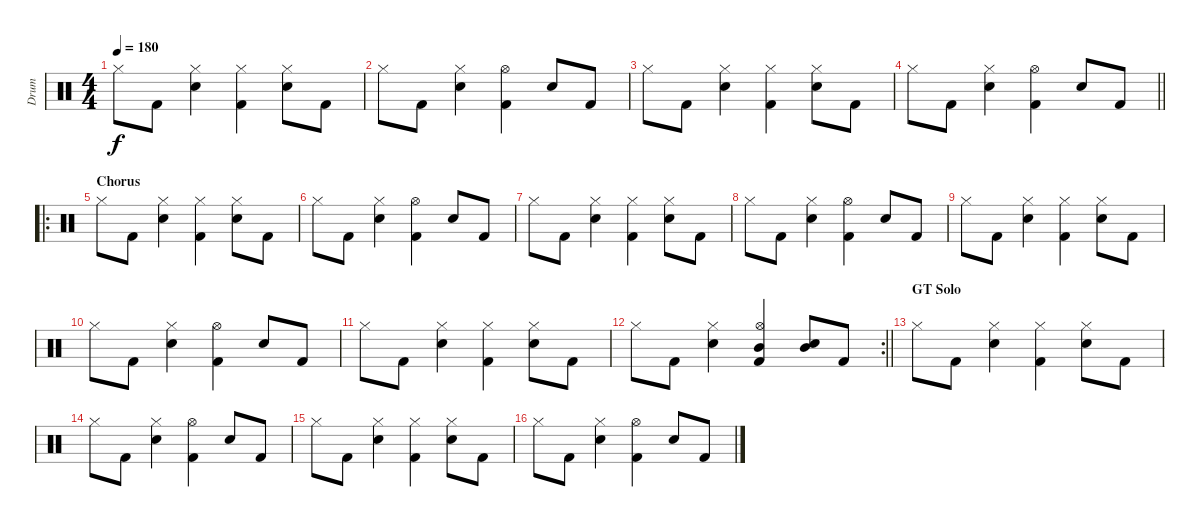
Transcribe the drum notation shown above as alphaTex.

\track ("Drum" "Drum") {instrument percussion}
\staff {score}
\articulation defaults
\ts (4 4)
\tempo 180
\clef neutral
\ks c "Hi-Hat (closed)".8{dy f} "Kick (hit) 2".8
("Hi-Hat (closed)" "Snare (hit) 2").4 ("Hi-Hat (closed)" "Kick (hit) 2").4 ("Hi-Hat (closed)" "Snare (hit) 2").8 "Kick (hit) 2".8 |
"Hi-Hat (closed)".8 "Kick (hit) 2".8 ("Hi-Hat (closed)" "Snare (hit) 2").4 ("Hi-Hat (open)" "Kick (hit) 2").4 "Snare (hit) 2".8 "Kick (hit) 2".8 |
"Hi-Hat (closed)".8 "Kick (hit) 2".8 ("Hi-Hat (closed)" "Snare (hit) 2").4 ("Hi-Hat (closed)" "Kick (hit) 2").4 ("Hi-Hat (closed)" "Snare (hit) 2").8 "Kick (hit) 2".8 |
\barLineRight lightlight "Hi-Hat (closed)".8 "Kick (hit) 2".8
("Hi-Hat (closed)" "Snare (hit) 2").4 ("Hi-Hat (open)" "Kick (hit) 2").4 "Snare (hit) 2".8 "Kick (hit) 2".8 |
\ro
\section ("" "Chorus")
"Hi-Hat (closed)".8 "Kick (hit) 2".8 ("Hi-Hat (closed)" "Snare (hit) 2").4 ("Hi-Hat (closed)" "Kick (hit) 2").4 ("Hi-Hat (closed)" "Snare (hit) 2").8 "Kick (hit) 2".8 |
"Hi-Hat (closed)".8 "Kick (hit) 2".8 ("Hi-Hat (closed)" "Snare (hit) 2").4 ("Hi-Hat (open)" "Kick (hit) 2").4 "Snare (hit) 2".8 "Kick (hit) 2".8 |
"Hi-Hat (closed)".8 "Kick (hit) 2".8 ("Hi-Hat (closed)" "Snare (hit) 2").4 ("Hi-Hat (closed)" "Kick (hit) 2").4 ("Hi-Hat (closed)" "Snare (hit) 2").8 "Kick (hit) 2".8 |
"Hi-Hat (closed)".8 "Kick (hit) 2".8 ("Hi-Hat (closed)" "Snare (hit) 2").4 ("Hi-Hat (open)" "Kick (hit) 2").4 "Snare (hit) 2".8 "Kick (hit) 2".8 |
"Hi-Hat (closed)".8 "Kick (hit) 2".8 ("Hi-Hat (closed)" "Snare (hit) 2").4 ("Hi-Hat (closed)" "Kick (hit) 2").4 ("Hi-Hat (closed)" "Snare (hit) 2").8 "Kick (hit) 2".8 |
"Hi-Hat (closed)".8 "Kick (hit) 2".8 ("Hi-Hat (closed)" "Snare (hit) 2").4 ("Hi-Hat (open)" "Kick (hit) 2").4 "Snare (hit) 2".8 "Kick (hit) 2".8 |
"Hi-Hat (closed)".8 "Kick (hit) 2".8 ("Hi-Hat (closed)" "Snare (hit) 2").4 ("Hi-Hat (closed)" "Kick (hit) 2").4 ("Hi-Hat (closed)" "Snare (hit) 2").8 "Kick (hit) 2".8 |
\rc 2
\barLineRight lightlight "Hi-Hat (closed)".8 "Kick (hit) 2".8
("Hi-Hat (closed)" "Snare (hit) 2").4 ("Hi-Hat (open)" "Mid Tom (hit)" "Kick (hit) 2").4 ("Mid Tom (hit)" "Snare (hit) 2").8 "Kick (hit) 2".8 |
\section ("" "GT Solo")
"Hi-Hat (closed)".8 "Kick (hit) 2".8 ("Hi-Hat (closed)" "Snare (hit) 2").4 ("Hi-Hat (closed)" "Kick (hit) 2").4 ("Hi-Hat (closed)" "Snare (hit) 2").8 "Kick (hit) 2".8 |
"Hi-Hat (closed)".8 "Kick (hit) 2".8 ("Hi-Hat (closed)" "Snare (hit) 2").4 ("Hi-Hat (open)" "Kick (hit) 2").4 "Snare (hit) 2".8 "Kick (hit) 2".8 |
"Hi-Hat (closed)".8 "Kick (hit) 2".8 ("Hi-Hat (closed)" "Snare (hit) 2").4 ("Hi-Hat (closed)" "Kick (hit) 2").4 ("Hi-Hat (closed)" "Snare (hit) 2").8 "Kick (hit) 2".8 |
"Hi-Hat (closed)".8 "Kick (hit) 2".8 ("Hi-Hat (closed)" "Snare (hit) 2").4 ("Hi-Hat (open)" "Kick (hit) 2").4 "Snare (hit) 2".8 "Kick (hit) 2".8
